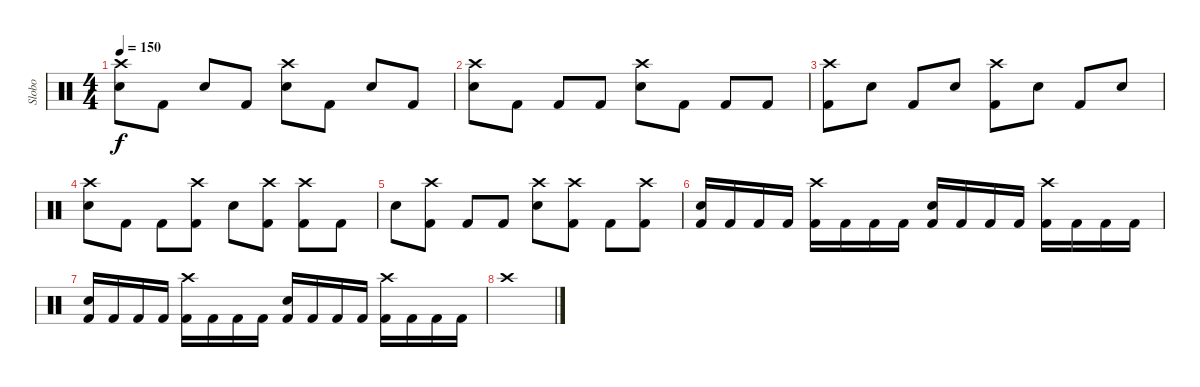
\track ("Slobo" "Slobo") {instrument percussion}
\staff {score}
\articulation defaults
\ts (4 4)
\tempo 150
\clef neutral
\ks c
("Crash high (hit)" "Snare (hit) 2").8{dy f} "Kick (hit) 2".8 "Snare (hit) 2".8 "Kick (hit) 2".8 ("Crash high (hit)" "Snare (hit) 2").8 "Kick (hit) 2".8 "Snare (hit) 2".8 "Kick (hit) 2".8 |
("Crash high (hit)" "Snare (hit) 2").8 "Kick (hit) 2".8 "Kick (hit) 2".8 "Kick (hit) 2".8 ("Crash high (hit)" "Snare (hit) 2").8 "Kick (hit) 2".8 "Kick (hit) 2".8 "Kick (hit) 2".8 |
("Crash high (hit)" "Kick (hit) 2").8 "Snare (hit) 2".8 "Kick (hit) 2".8 "Snare (hit) 2".8 ("Crash high (hit)" "Kick (hit) 2").8 "Snare (hit) 2".8 "Kick (hit) 2".8 "Snare (hit) 2".8 |
("Crash high (hit)" "Snare (hit) 2").8 "Kick (hit) 2".8 "Kick (hit) 2".8 ("Crash high (hit)" "Kick (hit) 2").8 "Snare (hit) 2".8 ("Crash high (hit)" "Kick (hit) 2").8 ("Crash high (hit)" "Kick (hit) 2").8 "Kick (hit) 2".8 |
"Snare (hit) 2".8 ("Crash high (hit)" "Kick (hit) 2").8 "Kick (hit) 2".8 "Kick (hit) 2".8 ("Crash high (hit)" "Snare (hit) 2").8 ("Crash high (hit)" "Kick (hit) 2").8 "Kick (hit) 2".8 ("Crash high (hit)" "Kick (hit) 2").8 |
("Snare (hit) 2" "Kick (hit) 2").16 "Kick (hit) 2".16 "Kick (hit) 2".16 "Kick (hit) 2".16 ("Crash high (hit)" "Kick (hit) 2").16 "Kick (hit) 2".16 "Kick (hit) 2".16 "Kick (hit) 2".16 ("Snare (hit) 2" "Kick (hit) 2").16 "Kick (hit) 2".16 "Kick (hit) 2".16 "Kick (hit) 2".16 ("Crash high (hit)" "Kick (hit) 2").16 "Kick (hit) 2".16 "Kick (hit) 2".16 "Kick (hit) 2".16 |
("Snare (hit) 2" "Kick (hit) 2").16 "Kick (hit) 2".16 "Kick (hit) 2".16 "Kick (hit) 2".16 ("Crash high (hit)" "Kick (hit) 2").16 "Kick (hit) 2".16 "Kick (hit) 2".16 "Kick (hit) 2".16 ("Snare (hit) 2" "Kick (hit) 2").16 "Kick (hit) 2".16 "Kick (hit) 2".16 "Kick (hit) 2".16 ("Crash high (hit)" "Kick (hit) 2").16 "Kick (hit) 2".16 "Kick (hit) 2".16 "Kick (hit) 2".16 |
"Crash high (hit)".1
